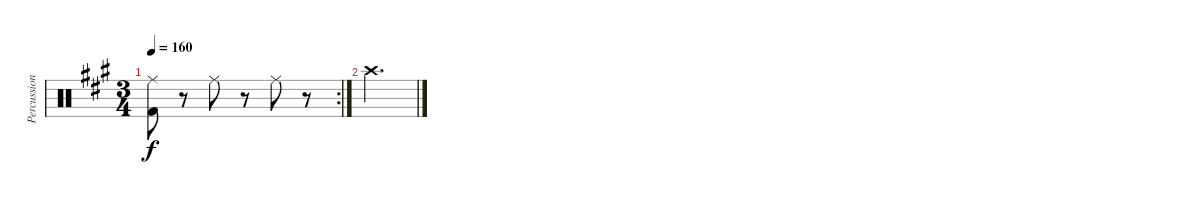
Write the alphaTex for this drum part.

\track ("Percussioni" "Percussion") {instrument percussion}
\staff {score}
\articulation defaults
\rc 2
\ts (3 4)
\tempo 160
\clef neutral
\ks a
("Ride (middle)" "Kick (hit) 2").8{dy f} r.8 "Ride (middle)".8 r.8 "Ride (middle)".8 r.8 |
"Crash high (hit)".2{d}
